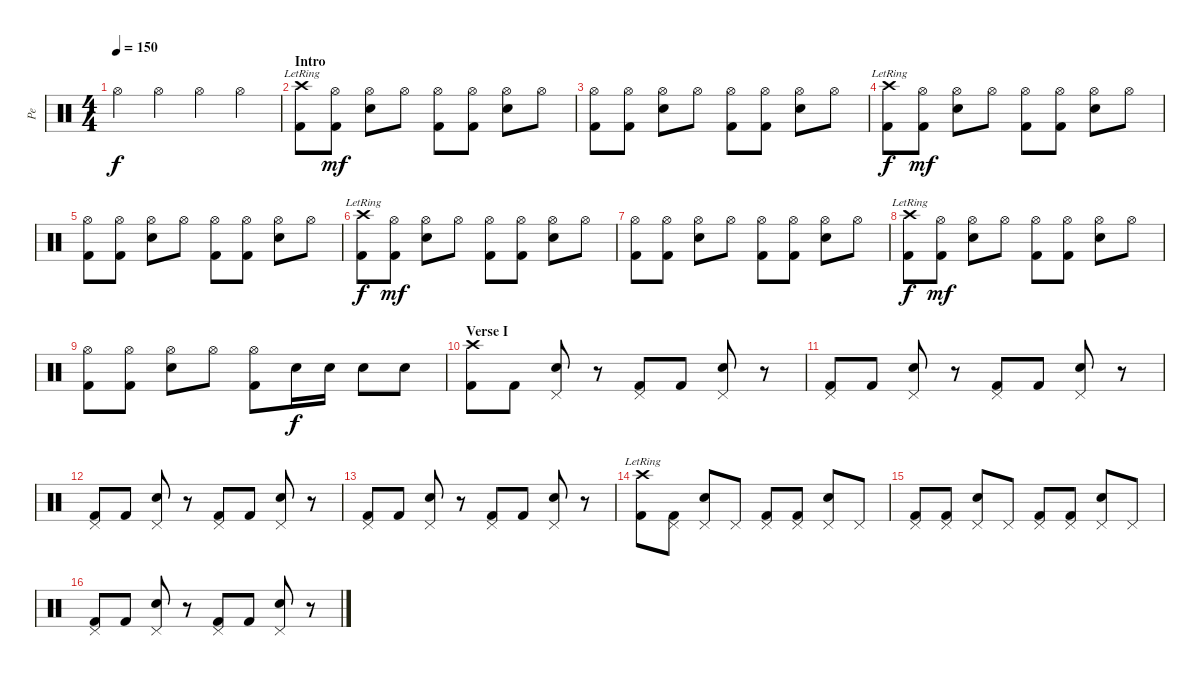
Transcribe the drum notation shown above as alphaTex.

\track ("Pe" "Pe") {instrument percussion}
\staff {score}
\articulation defaults
\ts (4 4)
\tempo 150
\clef neutral
\ks c "Hi-Hat (open)".4{dy f} "Hi-Hat (open)".4 "Hi-Hat (open)".4 "Hi-Hat (open)".4
|
\section ("" "Intro")
("Crash high (hit)"{lr} "Kick (hit) 2").8 ("Hi-Hat (open)" "Kick (hit) 2").8{dy mf} ("Hi-Hat (open)" "Snare (hit) 2").8 "Hi-Hat (open)".8 ("Hi-Hat (open)" "Kick (hit) 2").8 ("Hi-Hat (open)" "Kick (hit) 2").8 ("Hi-Hat (open)" "Snare (hit) 2").8 "Hi-Hat (open)".8 |
("Hi-Hat (open)" "Kick (hit) 2").8 ("Hi-Hat (open)" "Kick (hit) 2").8 ("Hi-Hat (open)" "Snare (hit) 2").8 "Hi-Hat (open)".8 ("Hi-Hat (open)" "Kick (hit) 2").8 ("Hi-Hat (open)" "Kick (hit) 2").8 ("Hi-Hat (open)" "Snare (hit) 2").8 "Hi-Hat (open)".8 |
("Crash high (hit)"{lr} "Kick (hit) 2").8{dy f} ("Hi-Hat (open)" "Kick (hit) 2").8{dy mf} ("Hi-Hat (open)" "Snare (hit) 2").8 "Hi-Hat (open)".8 ("Hi-Hat (open)" "Kick (hit) 2").8 ("Hi-Hat (open)" "Kick (hit) 2").8 ("Hi-Hat (open)" "Snare (hit) 2").8 "Hi-Hat (open)".8 |
("Hi-Hat (open)" "Kick (hit) 2").8 ("Hi-Hat (open)" "Kick (hit) 2").8 ("Hi-Hat (open)" "Snare (hit) 2").8 "Hi-Hat (open)".8 ("Hi-Hat (open)" "Kick (hit) 2").8 ("Hi-Hat (open)" "Kick (hit) 2").8 ("Hi-Hat (open)" "Snare (hit) 2").8 "Hi-Hat (open)".8 |
("Crash high (hit)"{lr} "Kick (hit) 2").8{dy f} ("Hi-Hat (open)" "Kick (hit) 2").8{dy mf} ("Hi-Hat (open)" "Snare (hit) 2").8 "Hi-Hat (open)".8 ("Hi-Hat (open)" "Kick (hit) 2").8 ("Hi-Hat (open)" "Kick (hit) 2").8 ("Hi-Hat (open)" "Snare (hit) 2").8 "Hi-Hat (open)".8 |
("Hi-Hat (open)" "Kick (hit) 2").8 ("Hi-Hat (open)" "Kick (hit) 2").8 ("Hi-Hat (open)" "Snare (hit) 2").8 "Hi-Hat (open)".8 ("Hi-Hat (open)" "Kick (hit) 2").8 ("Hi-Hat (open)" "Kick (hit) 2").8 ("Hi-Hat (open)" "Snare (hit) 2").8 "Hi-Hat (open)".8 |
("Crash high (hit)"{lr} "Kick (hit) 2").8{dy f} ("Hi-Hat (open)" "Kick (hit) 2").8{dy mf} ("Hi-Hat (open)" "Snare (hit) 2").8 "Hi-Hat (open)".8 ("Hi-Hat (open)" "Kick (hit) 2").8 ("Hi-Hat (open)" "Kick (hit) 2").8 ("Hi-Hat (open)" "Snare (hit) 2").8 "Hi-Hat (open)".8 |
("Hi-Hat (open)" "Kick (hit) 2").8 ("Hi-Hat (open)" "Kick (hit) 2").8 ("Hi-Hat (open)" "Snare (hit) 2").8 "Hi-Hat (open)".8 ("Hi-Hat (open)" "Kick (hit) 2").8 "Snare (hit) 2".16{dy f} "Snare (hit) 2".16 "Snare (hit) 2".8 "Snare (hit) 2".8 |
\section ("" "Verse I")
("Crash high (hit)" "Kick (hit) 2").8 "Kick (hit) 2".8 ("Pedal Hi-Hat (hit)" "Snare (hit) 2").8 r.8 ("Pedal Hi-Hat (hit)" "Kick (hit) 2").8 "Kick (hit) 2".8 ("Pedal Hi-Hat (hit)" "Snare (hit) 2").8 r.8 |
("Pedal Hi-Hat (hit)" "Kick (hit) 2").8 "Kick (hit) 2".8 ("Pedal Hi-Hat (hit)" "Snare (hit) 2").8 r.8 ("Pedal Hi-Hat (hit)" "Kick (hit) 2").8 "Kick (hit) 2".8 ("Pedal Hi-Hat (hit)" "Snare (hit) 2").8 r.8 |
("Pedal Hi-Hat (hit)" "Kick (hit) 2").8 "Kick (hit) 2".8 ("Pedal Hi-Hat (hit)" "Snare (hit) 2").8 r.8 ("Pedal Hi-Hat (hit)" "Kick (hit) 2").8 "Kick (hit) 2".8 ("Pedal Hi-Hat (hit)" "Snare (hit) 2").8 r.8 |
("Pedal Hi-Hat (hit)" "Kick (hit) 2").8 "Kick (hit) 2".8 ("Pedal Hi-Hat (hit)" "Snare (hit) 2").8 r.8 ("Pedal Hi-Hat (hit)" "Kick (hit) 2").8 "Kick (hit) 2".8 ("Pedal Hi-Hat (hit)" "Snare (hit) 2").8 r.8 |
("Crash high (hit)"{lr} "Kick (hit) 2").8 ("Pedal Hi-Hat (hit)" "Kick (hit) 2").8 ("Pedal Hi-Hat (hit)" "Snare (hit) 2").8 "Pedal Hi-Hat (hit)".8 ("Pedal Hi-Hat (hit)" "Kick (hit) 2").8 ("Pedal Hi-Hat (hit)" "Kick (hit) 2").8 ("Pedal Hi-Hat (hit)" "Snare (hit) 2").8 "Pedal Hi-Hat (hit)".8 |
("Pedal Hi-Hat (hit)" "Kick (hit) 2").8 ("Pedal Hi-Hat (hit)" "Kick (hit) 2").8 ("Pedal Hi-Hat (hit)" "Snare (hit) 2").8 "Pedal Hi-Hat (hit)".8 ("Pedal Hi-Hat (hit)" "Kick (hit) 2").8 ("Pedal Hi-Hat (hit)" "Kick (hit) 2").8 ("Pedal Hi-Hat (hit)" "Snare (hit) 2").8 "Pedal Hi-Hat (hit)".8 |
("Pedal Hi-Hat (hit)" "Kick (hit) 2").8 "Kick (hit) 2".8 ("Pedal Hi-Hat (hit)" "Snare (hit) 2").8 r.8 ("Pedal Hi-Hat (hit)" "Kick (hit) 2").8 "Kick (hit) 2".8 ("Pedal Hi-Hat (hit)" "Snare (hit) 2").8 r.8
